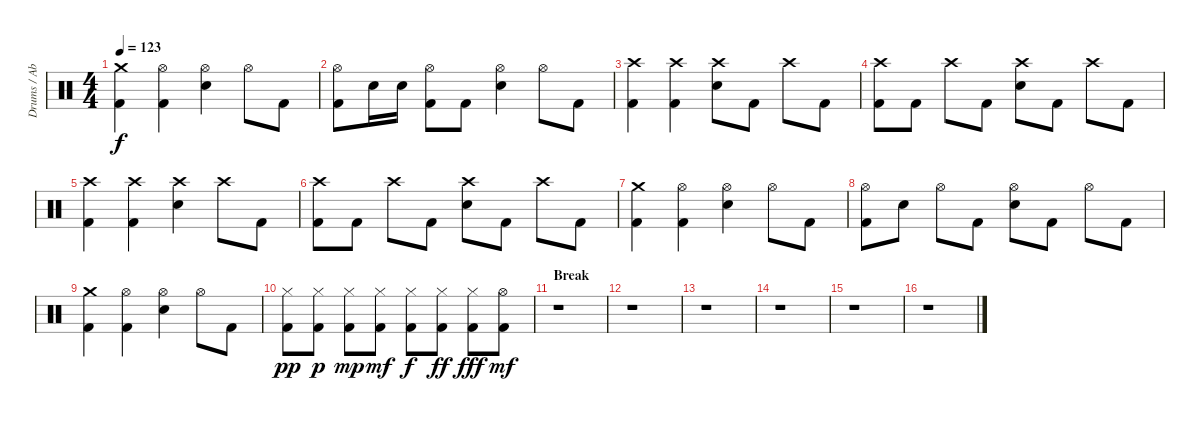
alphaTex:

\track ("Drums / Abe Cunningham" "Drums / Ab") {instrument percussion}
\staff {score}
\articulation defaults
\ts (4 4)
\tempo 123
\clef neutral
\ks c
("Crash medium (hit)" "Kick (hit) 2").4{dy f} ("Hi-Hat (open)" "Kick (hit) 2").4 ("Hi-Hat (open)" "Electric Snare (hit)").4 "Hi-Hat (open)".8 "Kick (hit) 2".8 |
("Hi-Hat (open)" "Kick (hit) 2").8 "Electric Snare (hit)".16 "Electric Snare (hit)".16 ("Hi-Hat (open)" "Kick (hit) 2").8 "Kick (hit) 2".8 ("Hi-Hat (open)" "Electric Snare (hit)").4 "Hi-Hat (open)".8 "Kick (hit) 2".8 |
("Crash high (hit)" "Kick (hit) 2").4 ("Crash high (hit)" "Kick (hit) 2").4 ("Crash high (hit)" "Electric Snare (hit)").8 "Kick (hit) 2".8 "Crash high (hit)".8 "Kick (hit) 2".8 |
("Crash high (hit)" "Kick (hit) 2").8 "Kick (hit) 2".8 "Crash high (hit)".8 "Kick (hit) 2".8 ("Crash high (hit)" "Electric Snare (hit)").8 "Kick (hit) 2".8 "Crash high (hit)".8 "Kick (hit) 2".8 |
("Crash high (hit)" "Kick (hit) 2").4 ("Crash high (hit)" "Kick (hit) 2").4 ("Crash high (hit)" "Electric Snare (hit)").4 "Crash high (hit)".8 "Kick (hit) 2".8 |
("Crash high (hit)" "Kick (hit) 2").8 "Kick (hit) 2".8 "Crash high (hit)".8 "Kick (hit) 2".8 ("Crash high (hit)" "Electric Snare (hit)").8 "Kick (hit) 2".8 "Crash high (hit)".8 "Kick (hit) 2".8 |
("Crash medium (hit)" "Kick (hit) 2").4 ("Hi-Hat (open)" "Kick (hit) 2").4 ("Hi-Hat (open)" "Electric Snare (hit)").4 "Hi-Hat (open)".8 "Kick (hit) 2".8 |
("Hi-Hat (open)" "Kick (hit) 2").8 "Electric Snare (hit)".8 "Hi-Hat (open)".8 "Kick (hit) 2".8 ("Hi-Hat (open)" "Electric Snare (hit)").8 "Kick (hit) 2".8 "Hi-Hat (open)".8 "Kick (hit) 2".8 |
("Crash medium (hit)" "Kick (hit) 2").4 ("Hi-Hat (open)" "Kick (hit) 2").4 ("Hi-Hat (open)" "Electric Snare (hit)").4 "Hi-Hat (open)".8 "Kick (hit) 2".8 |
("Hi-Hat (closed)" "Kick (hit) 2").8{dy pp} ("Hi-Hat (closed)" "Kick (hit) 2").8{dy p} ("Hi-Hat (closed)" "Kick (hit) 2").8{dy mp} ("Hi-Hat (closed)" "Kick (hit) 2").8{dy mf} ("Hi-Hat (closed)" "Kick (hit) 2").8{dy f} ("Hi-Hat (closed)" "Kick (hit) 2").8{dy ff} ("Hi-Hat (closed)" "Kick (hit) 2").8{dy fff} ("Hi-Hat (open)" "Kick (hit) 2").8{dy mf} |
\section ("" "Break")
r.1 |
r.1 |
r.1 |
r.1 |
r.1 |
r.1
